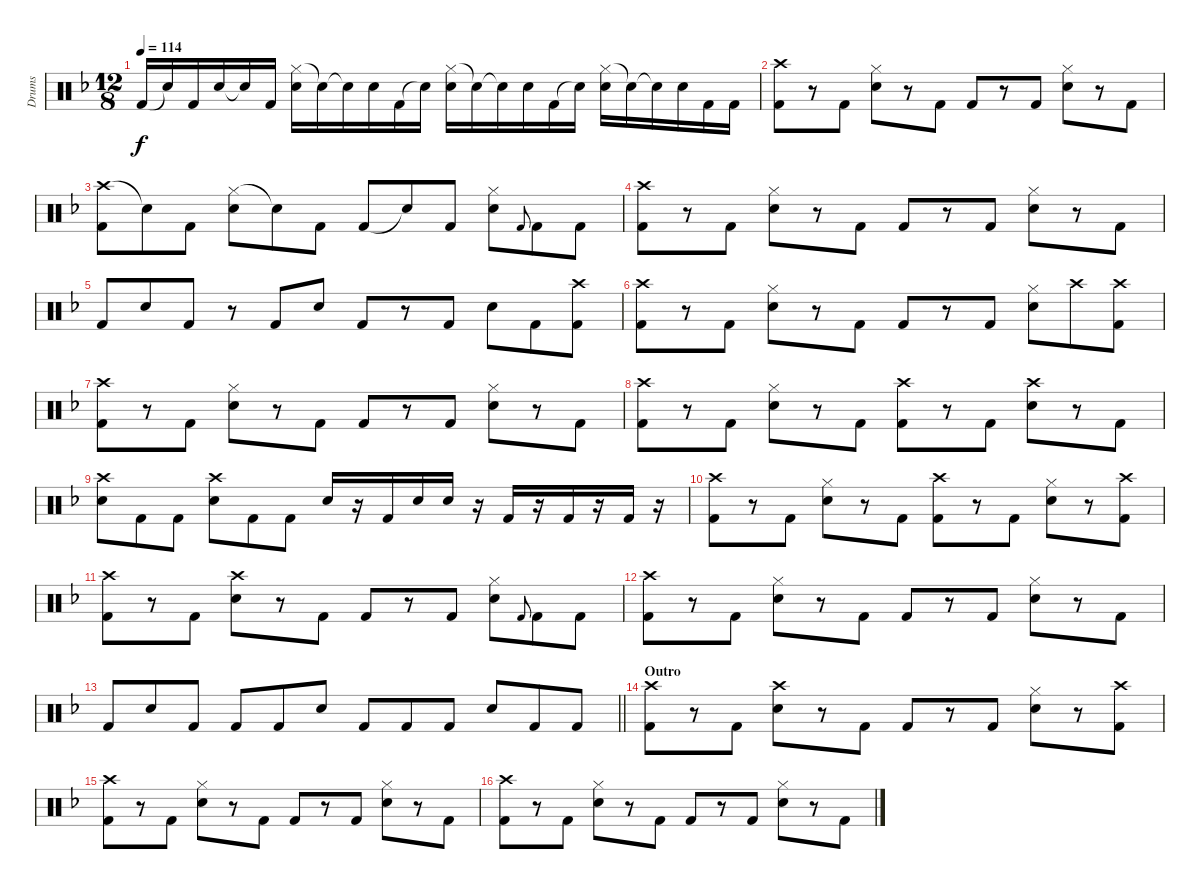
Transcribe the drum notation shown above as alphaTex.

\track ("Drums" "Drums") {instrument percussion}
\staff {score}
\articulation defaults
\ts (12 8)
\tempo 114
\clef neutral
\ks f "Kick (hit) 2".16{dy f} "Snare (hit)"{t}.16 "Kick (hit) 2".16 "Electric Snare (hit)".16 "Snare (hit)"{t}.16 "Kick (hit) 2".16
("Hi-Hat (closed)" "Electric Snare (hit)").16 "Snare (hit)"{t}.16 "Snare (hit)"{t}.16 "Electric Snare (hit)".16 "Kick (hit) 2".16 "Snare (hit)"{t}.16 ("Hi-Hat (closed)" "Electric Snare (hit)").16 "Snare (hit)"{t}.16 "Snare (hit)"{t}.16 "Electric Snare (hit)".16 "Kick (hit) 2".16 "Snare (hit)"{t}.16 ("Hi-Hat (closed)" "Electric Snare (hit)").16 "Snare (hit)"{t}.16 "Snare (hit)"{t}.16 "Electric Snare (hit)".16 "Kick (hit) 2".16 "Kick (hit) 2".16 |
("Crash high (hit)" "Kick (hit) 2").8 r.8 "Kick (hit) 2".8 ("Hi-Hat (closed)" "Electric Snare (hit)").8 r.8 "Kick (hit) 2".8 "Kick (hit) 2".8 r.8 "Kick (hit) 2".8 ("Hi-Hat (closed)" "Electric Snare (hit)").8 r.8 "Kick (hit) 2".8 |
("Crash high (hit)" "Kick (hit) 2").8 "Snare (hit)"{t}.8 "Kick (hit) 2".8 ("Hi-Hat (closed)" "Electric Snare (hit)").8 "Snare (hit)"{t}.8 "Kick (hit) 2".8 "Kick (hit) 2".8 "Snare (hit)"{t}.8 "Kick (hit) 2".8 ("Hi-Hat (closed)" "Electric Snare (hit)").8 "Kick (hit) 2".8{gr onbeat} "Kick (hit) 2".8 "Kick (hit) 2".8 |
("Crash high (hit)" "Kick (hit) 2").8 r.8 "Kick (hit) 2".8 ("Hi-Hat (closed)" "Electric Snare (hit)").8 r.8 "Kick (hit) 2".8 "Kick (hit) 2".8 r.8 "Kick (hit) 2".8 ("Hi-Hat (closed)" "Electric Snare (hit)").8 r.8 "Kick (hit) 2".8 |
"Kick (hit) 2".8 "Electric Snare (hit)".8 "Kick (hit) 2".8 r.8 "Kick (hit) 2".8 "Electric Snare (hit)".8 "Kick (hit) 2".8 r.8 "Kick (hit) 2".8 "Electric Snare (hit)".8 "Kick (hit) 2".8 ("Crash high (hit)" "Kick (hit) 2").8 |
("Crash high (hit)" "Kick (hit) 2").8 r.8 "Kick (hit) 2".8 ("Hi-Hat (closed)" "Electric Snare (hit)").8 r.8 "Kick (hit) 2".8 "Kick (hit) 2".8 r.8 "Kick (hit) 2".8 ("Hi-Hat (closed)" "Electric Snare (hit)").8 "Crash high (hit)".8 ("Crash high (hit)" "Kick (hit) 2").8 |
("Crash high (hit)" "Kick (hit) 2").8 r.8 "Kick (hit) 2".8 ("Hi-Hat (closed)" "Electric Snare (hit)").8 r.8 "Kick (hit) 2".8 "Kick (hit) 2".8 r.8 "Kick (hit) 2".8 ("Hi-Hat (closed)" "Electric Snare (hit)").8 r.8 "Kick (hit) 2".8 |
("Crash high (hit)" "Kick (hit) 2").8 r.8 "Kick (hit) 2".8 ("Hi-Hat (closed)" "Electric Snare (hit)").8 r.8 "Kick (hit) 2".8 ("Crash high (hit)" "Kick (hit) 2").8 r.8 "Kick (hit) 2".8 ("Crash high (hit)" "Electric Snare (hit)").8 r.8 "Kick (hit) 2".8 |
("Crash high (hit)" "Electric Snare (hit)").8 "Kick (hit) 2".8 "Kick (hit) 2".8 ("Crash high (hit)" "Electric Snare (hit)").8 "Kick (hit) 2".8 "Kick (hit) 2".8 "Electric Snare (hit)".16 r.16 "Kick (hit) 2".16 "Electric Snare (hit)".16 "Electric Snare (hit)".16 r.16 "Kick (hit) 2".16 r.16 "Kick (hit) 2".16 r.16 "Kick (hit) 2".16 r.16 |
("Crash high (hit)" "Kick (hit) 2").8 r.8 "Kick (hit) 2".8 ("Hi-Hat (closed)" "Electric Snare (hit)").8 r.8 "Kick (hit) 2".8 ("Crash high (hit)" "Kick (hit) 2").8 r.8 "Kick (hit) 2".8 ("Hi-Hat (closed)" "Electric Snare (hit)").8 r.8 ("Crash high (hit)" "Kick (hit) 2").8 |
("Crash high (hit)" "Kick (hit) 2").8 r.8 "Kick (hit) 2".8 ("Crash high (hit)" "Electric Snare (hit)").8 r.8 "Kick (hit) 2".8 "Kick (hit) 2".8 r.8 "Kick (hit) 2".8 ("Hi-Hat (closed)" "Electric Snare (hit)").8 "Kick (hit) 2".8{gr onbeat} "Kick (hit) 2".8 "Kick (hit) 2".8 |
("Crash high (hit)" "Kick (hit) 2").8 r.8 "Kick (hit) 2".8 ("Hi-Hat (closed)" "Electric Snare (hit)").8 r.8 "Kick (hit) 2".8 "Kick (hit) 2".8 r.8 "Kick (hit) 2".8 ("Hi-Hat (closed)" "Electric Snare (hit)").8 r.8 "Kick (hit) 2".8 |
\barLineRight lightlight "Kick (hit) 2".8 "Electric Snare (hit)".8 "Kick (hit) 2".8 "Kick (hit) 2".8 "Kick (hit) 2".8 "Electric Snare (hit)".8 "Kick (hit) 2".8 "Kick (hit) 2".8 "Kick (hit) 2".8 "Electric Snare (hit)".8 "Kick (hit) 2".8 "Kick (hit) 2".8
|
\section ("" "Outro")
("Crash high (hit)" "Kick (hit) 2").8 r.8 "Kick (hit) 2".8 ("Crash high (hit)" "Electric Snare (hit)").8 r.8 "Kick (hit) 2".8 "Kick (hit) 2".8 r.8 "Kick (hit) 2".8 ("Hi-Hat (closed)" "Electric Snare (hit)").8 r.8 ("Crash high (hit)" "Kick (hit) 2").8 |
("Crash high (hit)" "Kick (hit) 2").8 r.8 "Kick (hit) 2".8 ("Hi-Hat (closed)" "Electric Snare (hit)").8 r.8 "Kick (hit) 2".8 "Kick (hit) 2".8 r.8 "Kick (hit) 2".8 ("Hi-Hat (closed)" "Electric Snare (hit)").8 r.8 "Kick (hit) 2".8 |
("Crash high (hit)" "Kick (hit) 2").8 r.8 "Kick (hit) 2".8 ("Hi-Hat (closed)" "Electric Snare (hit)").8 r.8 "Kick (hit) 2".8 "Kick (hit) 2".8 r.8 "Kick (hit) 2".8 ("Hi-Hat (closed)" "Electric Snare (hit)").8 r.8 "Kick (hit) 2".8
